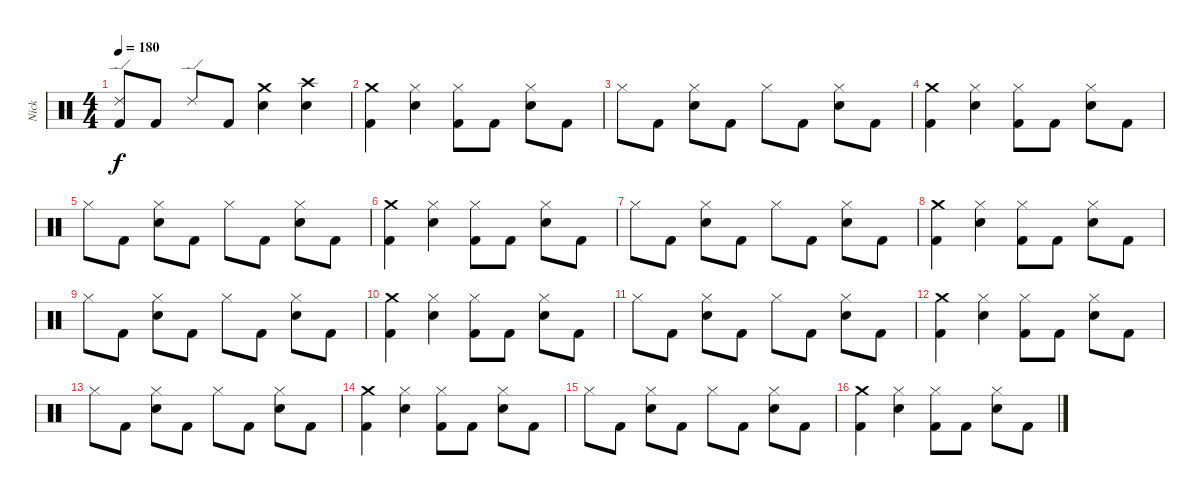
\track ("Nick" "Nick") {instrument percussion}
\staff {score}
\articulation defaults
\ts (4 4)
\tempo 180
\clef neutral
\ks c
("Ride (edge) 2" "Kick (hit) 2").8{dy f} "Kick (hit) 2".8 "Ride (edge) 2".8 "Kick (hit) 2".8 ("Crash medium (hit)" "Electric Snare (hit)").4 ("Crash high (hit)" "Electric Snare (hit)").4 |
("Crash medium (hit)" "Kick (hit) 2").4 ("Hi-Hat (closed)" "Electric Snare (hit)").4 ("Hi-Hat (closed)" "Kick (hit) 2").8 "Kick (hit) 2".8 ("Hi-Hat (closed)" "Electric Snare (hit)").8 "Kick (hit) 2".8 |
"Hi-Hat (closed)".8 "Kick (hit) 2".8 ("Hi-Hat (closed)" "Electric Snare (hit)").8 "Kick (hit) 2".8 "Hi-Hat (closed)".8 "Kick (hit) 2".8 ("Hi-Hat (closed)" "Electric Snare (hit)").8 "Kick (hit) 2".8 |
("Crash medium (hit)" "Kick (hit) 2").4 ("Hi-Hat (closed)" "Electric Snare (hit)").4 ("Hi-Hat (closed)" "Kick (hit) 2").8 "Kick (hit) 2".8 ("Hi-Hat (closed)" "Electric Snare (hit)").8 "Kick (hit) 2".8 |
"Hi-Hat (closed)".8 "Kick (hit) 2".8 ("Hi-Hat (closed)" "Electric Snare (hit)").8 "Kick (hit) 2".8 "Hi-Hat (closed)".8 "Kick (hit) 2".8 ("Hi-Hat (closed)" "Electric Snare (hit)").8 "Kick (hit) 2".8 |
("Crash medium (hit)" "Kick (hit) 2").4 ("Hi-Hat (closed)" "Electric Snare (hit)").4 ("Hi-Hat (closed)" "Kick (hit) 2").8 "Kick (hit) 2".8 ("Hi-Hat (closed)" "Electric Snare (hit)").8 "Kick (hit) 2".8 |
"Hi-Hat (closed)".8 "Kick (hit) 2".8 ("Hi-Hat (closed)" "Electric Snare (hit)").8 "Kick (hit) 2".8 "Hi-Hat (closed)".8 "Kick (hit) 2".8 ("Hi-Hat (closed)" "Electric Snare (hit)").8 "Kick (hit) 2".8 |
("Crash medium (hit)" "Kick (hit) 2").4 ("Hi-Hat (closed)" "Electric Snare (hit)").4 ("Hi-Hat (closed)" "Kick (hit) 2").8 "Kick (hit) 2".8 ("Hi-Hat (closed)" "Electric Snare (hit)").8 "Kick (hit) 2".8 |
"Hi-Hat (closed)".8 "Kick (hit) 2".8 ("Hi-Hat (closed)" "Electric Snare (hit)").8 "Kick (hit) 2".8 "Hi-Hat (closed)".8 "Kick (hit) 2".8 ("Hi-Hat (closed)" "Electric Snare (hit)").8 "Kick (hit) 2".8 |
("Crash medium (hit)" "Kick (hit) 2").4 ("Hi-Hat (closed)" "Electric Snare (hit)").4 ("Hi-Hat (closed)" "Kick (hit) 2").8 "Kick (hit) 2".8 ("Hi-Hat (closed)" "Electric Snare (hit)").8 "Kick (hit) 2".8 |
"Hi-Hat (closed)".8 "Kick (hit) 2".8 ("Hi-Hat (closed)" "Electric Snare (hit)").8 "Kick (hit) 2".8 "Hi-Hat (closed)".8 "Kick (hit) 2".8 ("Hi-Hat (closed)" "Electric Snare (hit)").8 "Kick (hit) 2".8 |
("Crash medium (hit)" "Kick (hit) 2").4 ("Hi-Hat (closed)" "Electric Snare (hit)").4 ("Hi-Hat (closed)" "Kick (hit) 2").8 "Kick (hit) 2".8 ("Hi-Hat (closed)" "Electric Snare (hit)").8 "Kick (hit) 2".8 |
"Hi-Hat (closed)".8 "Kick (hit) 2".8 ("Hi-Hat (closed)" "Electric Snare (hit)").8 "Kick (hit) 2".8 "Hi-Hat (closed)".8 "Kick (hit) 2".8 ("Hi-Hat (closed)" "Electric Snare (hit)").8 "Kick (hit) 2".8 |
("Crash medium (hit)" "Kick (hit) 2").4 ("Hi-Hat (closed)" "Electric Snare (hit)").4 ("Hi-Hat (closed)" "Kick (hit) 2").8 "Kick (hit) 2".8 ("Hi-Hat (closed)" "Electric Snare (hit)").8 "Kick (hit) 2".8 |
"Hi-Hat (closed)".8 "Kick (hit) 2".8 ("Hi-Hat (closed)" "Electric Snare (hit)").8 "Kick (hit) 2".8 "Hi-Hat (closed)".8 "Kick (hit) 2".8 ("Hi-Hat (closed)" "Electric Snare (hit)").8 "Kick (hit) 2".8 |
("Crash medium (hit)" "Kick (hit) 2").4 ("Hi-Hat (closed)" "Electric Snare (hit)").4 ("Hi-Hat (closed)" "Kick (hit) 2").8 "Kick (hit) 2".8 ("Hi-Hat (closed)" "Electric Snare (hit)").8 "Kick (hit) 2".8
